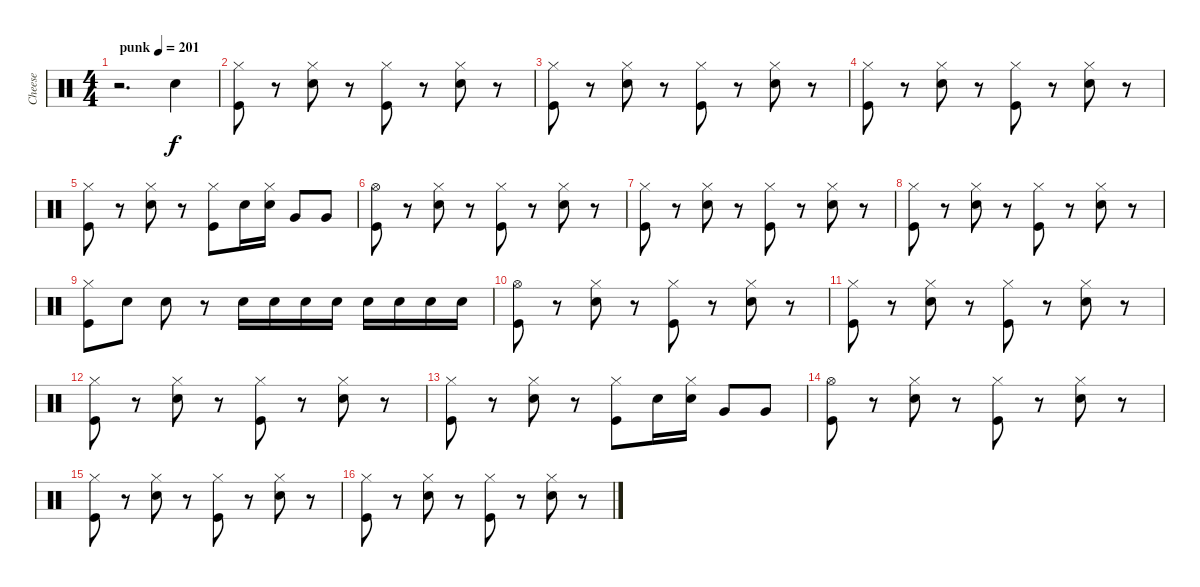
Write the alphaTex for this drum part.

\track ("Cheese" "Cheese") {instrument percussion}
\staff {score}
\articulation defaults
\ts (4 4)
\tempo (201 "punk")
\clef neutral
\ks c
r.2{d dy f} "Snare (hit) 2".4 |
("Hi-Hat (closed)" "Kick (hit)").8 r.8 ("Hi-Hat (closed)" "Snare (hit) 2").8 r.8 ("Hi-Hat (closed)" "Kick (hit)").8 r.8 ("Hi-Hat (closed)" "Snare (hit) 2").8 r.8 |
("Hi-Hat (closed)" "Kick (hit)").8 r.8 ("Hi-Hat (closed)" "Snare (hit) 2").8 r.8 ("Hi-Hat (closed)" "Kick (hit)").8 r.8 ("Hi-Hat (closed)" "Snare (hit) 2").8 r.8 |
("Hi-Hat (closed)" "Kick (hit)").8 r.8 ("Hi-Hat (closed)" "Snare (hit) 2").8 r.8 ("Hi-Hat (closed)" "Kick (hit)").8 r.8 ("Hi-Hat (closed)" "Snare (hit) 2").8 r.8 |
("Hi-Hat (closed)" "Kick (hit)").8 r.8 ("Hi-Hat (closed)" "Snare (hit) 2").8 r.8 ("Hi-Hat (closed)" "Kick (hit)").8 "Snare (hit) 2".16 ("Hi-Hat (closed)" "Snare (hit) 2").16 "Very Low Tom (hit)".8 "Very Low Tom (hit)".8 |
("Hi-Hat (open)" "Kick (hit)").8 r.8 ("Hi-Hat (closed)" "Snare (hit) 2").8 r.8 ("Hi-Hat (closed)" "Kick (hit)").8 r.8 ("Hi-Hat (closed)" "Snare (hit) 2").8 r.8 |
("Hi-Hat (closed)" "Kick (hit)").8 r.8 ("Hi-Hat (closed)" "Snare (hit) 2").8 r.8 ("Hi-Hat (closed)" "Kick (hit)").8 r.8 ("Hi-Hat (closed)" "Snare (hit) 2").8 r.8 |
("Hi-Hat (closed)" "Kick (hit)").8 r.8 ("Hi-Hat (closed)" "Snare (hit) 2").8 r.8 ("Hi-Hat (closed)" "Kick (hit)").8 r.8 ("Hi-Hat (closed)" "Snare (hit) 2").8 r.8 |
("Hi-Hat (closed)" "Kick (hit)").8 "Snare (hit) 2".8 "Snare (hit) 2".8 r.8 "Snare (hit) 2".16 "Snare (hit) 2".16 "Snare (hit) 2".16 "Snare (hit) 2".16 "Snare (hit) 2".16 "Snare (hit) 2".16 "Snare (hit) 2".16 "Snare (hit) 2".16 |
("Hi-Hat (open)" "Kick (hit)").8 r.8 ("Hi-Hat (closed)" "Snare (hit) 2").8 r.8 ("Hi-Hat (closed)" "Kick (hit)").8 r.8 ("Hi-Hat (closed)" "Snare (hit) 2").8 r.8 |
("Hi-Hat (closed)" "Kick (hit)").8 r.8 ("Hi-Hat (closed)" "Snare (hit) 2").8 r.8 ("Hi-Hat (closed)" "Kick (hit)").8 r.8 ("Hi-Hat (closed)" "Snare (hit) 2").8 r.8 |
("Hi-Hat (closed)" "Kick (hit)").8 r.8 ("Hi-Hat (closed)" "Snare (hit) 2").8 r.8 ("Hi-Hat (closed)" "Kick (hit)").8 r.8 ("Hi-Hat (closed)" "Snare (hit) 2").8 r.8 |
("Hi-Hat (closed)" "Kick (hit)").8 r.8 ("Hi-Hat (closed)" "Snare (hit) 2").8 r.8 ("Hi-Hat (closed)" "Kick (hit)").8 "Snare (hit) 2".16 ("Hi-Hat (closed)" "Snare (hit) 2").16 "Very Low Tom (hit)".8 "Very Low Tom (hit)".8 |
("Hi-Hat (open)" "Kick (hit)").8 r.8 ("Hi-Hat (closed)" "Snare (hit) 2").8 r.8 ("Hi-Hat (closed)" "Kick (hit)").8 r.8 ("Hi-Hat (closed)" "Snare (hit) 2").8 r.8 |
("Hi-Hat (closed)" "Kick (hit)").8 r.8 ("Hi-Hat (closed)" "Snare (hit) 2").8 r.8 ("Hi-Hat (closed)" "Kick (hit)").8 r.8 ("Hi-Hat (closed)" "Snare (hit) 2").8 r.8 |
("Hi-Hat (closed)" "Kick (hit)").8 r.8 ("Hi-Hat (closed)" "Snare (hit) 2").8 r.8 ("Hi-Hat (closed)" "Kick (hit)").8 r.8 ("Hi-Hat (closed)" "Snare (hit) 2").8 r.8
